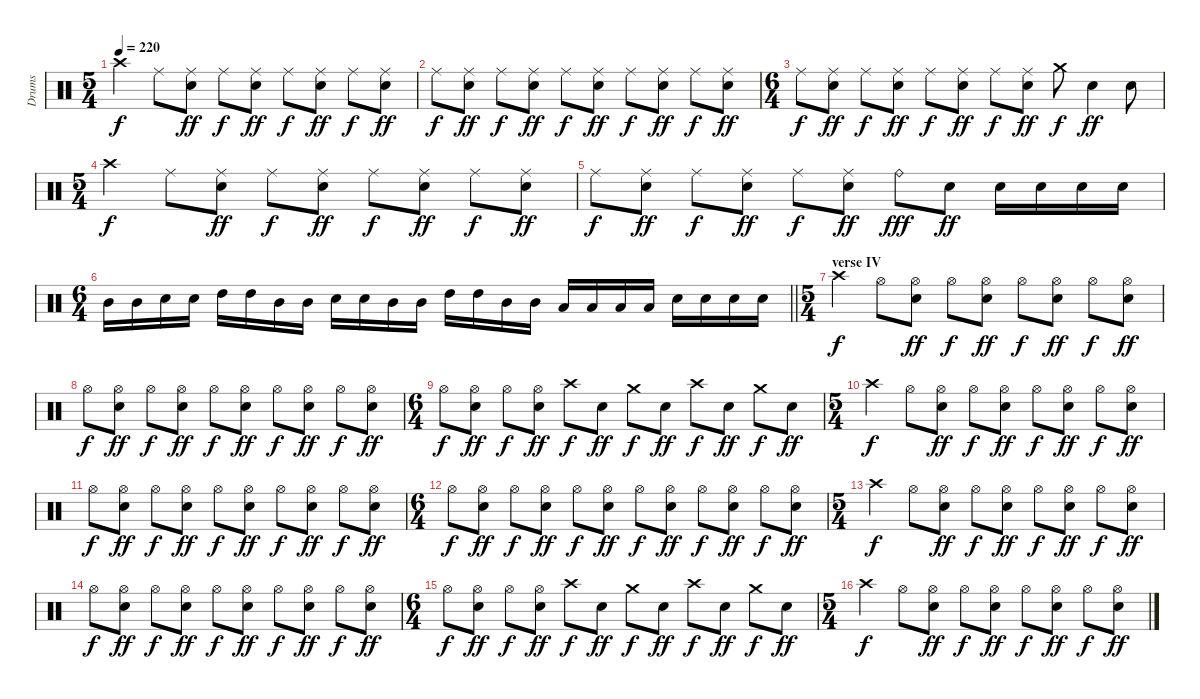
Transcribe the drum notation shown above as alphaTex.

\track ("Drums" "Drums") {instrument percussion}
\staff {score}
\articulation defaults
\ts (5 4)
\tempo 220
\clef neutral
\ks c "Crash high (hit)".4{dy f} "Ride (middle)".8
("Ride (middle)" "Snare (hit) 2").8{dy ff} "Ride (middle)".8{dy f} ("Ride (middle)" "Snare (hit) 2").8{dy ff} "Ride (middle)".8{dy f} ("Ride (middle)" "Snare (hit) 2").8{dy ff} "Ride (middle)".8{dy f} ("Ride (middle)" "Snare (hit) 2").8{dy ff} |
"Ride (middle)".8{dy f} ("Ride (middle)" "Snare (hit) 2").8{dy ff} "Ride (middle)".8{dy f} ("Ride (middle)" "Snare (hit) 2").8{dy ff} "Ride (middle)".8{dy f} ("Ride (middle)" "Snare (hit) 2").8{dy ff} "Ride (middle)".8{dy f} ("Ride (middle)" "Snare (hit) 2").8{dy ff} "Ride (middle)".8{dy f} ("Ride (middle)" "Snare (hit) 2").8{dy ff} |
\ts (6 4)
"Ride (middle)".8{dy f} ("Ride (middle)" "Snare (hit) 2").8{dy ff} "Ride (middle)".8{dy f} ("Ride (middle)" "Snare (hit) 2").8{dy ff} "Ride (middle)".8{dy f} ("Ride (middle)" "Snare (hit) 2").8{dy ff} "Ride (middle)".8{dy f} ("Ride (middle)" "Snare (hit) 2").8{dy ff} "Crash medium (hit)".8{dy f} "Snare (hit) 2".4{dy ff} "Snare (hit) 2".8 |
\ts (5 4)
"Crash high (hit)".4{dy f} "Ride (middle)".8 ("Ride (middle)" "Snare (hit) 2").8{dy ff} "Ride (middle)".8{dy f} ("Ride (middle)" "Snare (hit) 2").8{dy ff} "Ride (middle)".8{dy f} ("Ride (middle)" "Snare (hit) 2").8{dy ff} "Ride (middle)".8{dy f} ("Ride (middle)" "Snare (hit) 2").8{dy ff} |
"Ride (middle)".8{dy f} ("Ride (middle)" "Snare (hit) 2").8{dy ff} "Ride (middle)".8{dy f} ("Ride (middle)" "Snare (hit) 2").8{dy ff} "Ride (middle)".8{dy f} ("Ride (middle)" "Snare (hit) 2").8{dy ff} "Ride (bell)".8{dy fff} "Snare (hit) 2".8{dy ff} "Snare (hit) 2".16 "Snare (hit) 2".16 "Snare (hit) 2".16 "Snare (hit) 2".16 |
\ts (6 4)
\barLineRight lightlight "Mid Tom (hit)".16 "Mid Tom (hit)".16 "Snare (hit) 2".16 "Snare (hit) 2".16 "High Tom (hit)".16 "High Tom (hit)".16 "Mid Tom (hit)".16 "Mid Tom (hit)".16 "Snare (hit) 2".16 "Snare (hit) 2".16 "Mid Tom (hit)".16 "Mid Tom (hit)".16 "High Tom (hit)".16 "High Tom (hit)".16 "Mid Tom (hit)".16 "Mid Tom (hit)".16 "Low Tom (hit)".16 "Low Tom (hit)".16 "Low Tom (hit)".16 "Low Tom (hit)".16 "Snare (hit) 2".16 "Snare (hit) 2".16 "Snare (hit) 2".16 "Snare (hit) 2".16
|
\ts (5 4)
\section ("" "verse IV")
"Crash high (hit)".4{dy f} "Hi-Hat (open)".8 ("Hi-Hat (open)" "Snare (hit) 2").8{dy ff} "Hi-Hat (open)".8{dy f} ("Hi-Hat (open)" "Snare (hit) 2").8{dy ff} "Hi-Hat (open)".8{dy f} ("Hi-Hat (open)" "Snare (hit) 2").8{dy ff} "Hi-Hat (open)".8{dy f} ("Hi-Hat (open)" "Snare (hit) 2").8{dy ff} |
"Hi-Hat (open)".8{dy f} ("Hi-Hat (open)" "Snare (hit) 2").8{dy ff} "Hi-Hat (open)".8{dy f} ("Hi-Hat (open)" "Snare (hit) 2").8{dy ff} "Hi-Hat (open)".8{dy f} ("Hi-Hat (open)" "Snare (hit) 2").8{dy ff} "Hi-Hat (open)".8{dy f} ("Hi-Hat (open)" "Snare (hit) 2").8{dy ff} "Hi-Hat (open)".8{dy f} ("Hi-Hat (open)" "Snare (hit) 2").8{dy ff} |
\ts (6 4)
"Hi-Hat (open)".8{dy f} ("Hi-Hat (open)" "Snare (hit) 2").8{dy ff} "Hi-Hat (open)".8{dy f} ("Hi-Hat (open)" "Snare (hit) 2").8{dy ff} "Crash high (hit)".8{dy f} "Snare (hit) 2".8{dy ff} "Crash medium (hit)".8{dy f} "Snare (hit) 2".8{dy ff} "Crash high (hit)".8{dy f} "Snare (hit) 2".8{dy ff} "Crash medium (hit)".8{dy f} "Snare (hit) 2".8{dy ff} |
\ts (5 4)
"Crash high (hit)".4{dy f} "Hi-Hat (open)".8 ("Hi-Hat (open)" "Snare (hit) 2").8{dy ff} "Hi-Hat (open)".8{dy f} ("Hi-Hat (open)" "Snare (hit) 2").8{dy ff} "Hi-Hat (open)".8{dy f} ("Hi-Hat (open)" "Snare (hit) 2").8{dy ff} "Hi-Hat (open)".8{dy f} ("Hi-Hat (open)" "Snare (hit) 2").8{dy ff} |
"Hi-Hat (open)".8{dy f} ("Hi-Hat (open)" "Snare (hit) 2").8{dy ff} "Hi-Hat (open)".8{dy f} ("Hi-Hat (open)" "Snare (hit) 2").8{dy ff} "Hi-Hat (open)".8{dy f} ("Hi-Hat (open)" "Snare (hit) 2").8{dy ff} "Hi-Hat (open)".8{dy f} ("Hi-Hat (open)" "Snare (hit) 2").8{dy ff} "Hi-Hat (open)".8{dy f} ("Hi-Hat (open)" "Snare (hit) 2").8{dy ff} |
\ts (6 4)
"Hi-Hat (open)".8{dy f} ("Hi-Hat (open)" "Snare (hit) 2").8{dy ff} "Hi-Hat (open)".8{dy f} ("Hi-Hat (open)" "Snare (hit) 2").8{dy ff} "Hi-Hat (open)".8{dy f} ("Hi-Hat (open)" "Snare (hit) 2").8{dy ff} "Hi-Hat (open)".8{dy f} ("Hi-Hat (open)" "Snare (hit) 2").8{dy ff} "Hi-Hat (open)".8{dy f} ("Hi-Hat (open)" "Snare (hit) 2").8{dy ff} "Hi-Hat (open)".8{dy f} ("Hi-Hat (open)" "Snare (hit) 2").8{dy ff} |
\ts (5 4)
"Crash high (hit)".4{dy f} "Hi-Hat (open)".8 ("Hi-Hat (open)" "Snare (hit) 2").8{dy ff} "Hi-Hat (open)".8{dy f} ("Hi-Hat (open)" "Snare (hit) 2").8{dy ff} "Hi-Hat (open)".8{dy f} ("Hi-Hat (open)" "Snare (hit) 2").8{dy ff} "Hi-Hat (open)".8{dy f} ("Hi-Hat (open)" "Snare (hit) 2").8{dy ff} |
"Hi-Hat (open)".8{dy f} ("Hi-Hat (open)" "Snare (hit) 2").8{dy ff} "Hi-Hat (open)".8{dy f} ("Hi-Hat (open)" "Snare (hit) 2").8{dy ff} "Hi-Hat (open)".8{dy f} ("Hi-Hat (open)" "Snare (hit) 2").8{dy ff} "Hi-Hat (open)".8{dy f} ("Hi-Hat (open)" "Snare (hit) 2").8{dy ff} "Hi-Hat (open)".8{dy f} ("Hi-Hat (open)" "Snare (hit) 2").8{dy ff} |
\ts (6 4)
"Hi-Hat (open)".8{dy f} ("Hi-Hat (open)" "Snare (hit) 2").8{dy ff} "Hi-Hat (open)".8{dy f} ("Hi-Hat (open)" "Snare (hit) 2").8{dy ff} "Crash high (hit)".8{dy f} "Snare (hit) 2".8{dy ff} "Crash medium (hit)".8{dy f} "Snare (hit) 2".8{dy ff} "Crash high (hit)".8{dy f} "Snare (hit) 2".8{dy ff} "Crash medium (hit)".8{dy f} "Snare (hit) 2".8{dy ff} |
\ts (5 4)
"Crash high (hit)".4{dy f} "Hi-Hat (open)".8 ("Hi-Hat (open)" "Snare (hit) 2").8{dy ff} "Hi-Hat (open)".8{dy f} ("Hi-Hat (open)" "Snare (hit) 2").8{dy ff} "Hi-Hat (open)".8{dy f} ("Hi-Hat (open)" "Snare (hit) 2").8{dy ff} "Hi-Hat (open)".8{dy f} ("Hi-Hat (open)" "Snare (hit) 2").8{dy ff}
